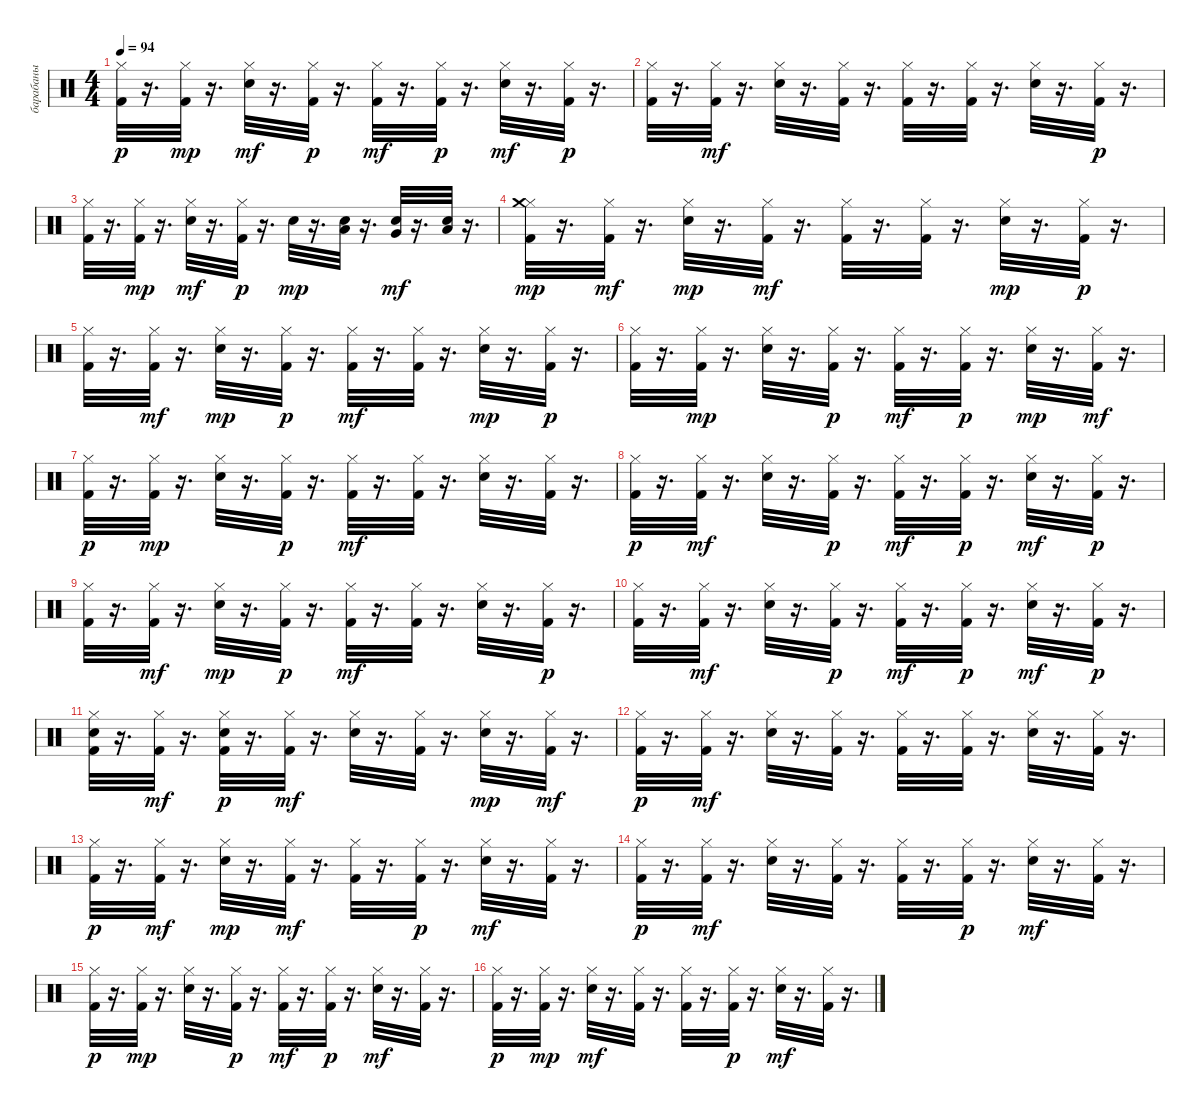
\track ("барабаны" "барабаны") {instrument percussion}
\staff {score}
\articulation defaults
\ts (4 4)
\tempo 94
\clef neutral
\ks c
("Hi-Hat (closed)" "Kick (hit) 2").32{dy p} r.16{d} ("Hi-Hat (closed)" "Kick (hit) 2").32{dy mp} r.16{d} ("Hi-Hat (closed)" "Metronome (bell)").32{dy mf} r.16{d} ("Hi-Hat (closed)" "Kick (hit) 2").32{dy p} r.16{d} ("Kick (hit) 2" "Hi-Hat (closed)").32{dy mf} r.16{d} ("Hi-Hat (closed)" "Kick (hit) 2").32{dy p} r.16{d} ("Hi-Hat (closed)" "Metronome (bell)").32{dy mf} r.16{d} ("Hi-Hat (closed)" "Kick (hit) 2").32{dy p} r.16{d} |
("Kick (hit) 2" "Hi-Hat (closed)").32 r.16{d} ("Kick (hit) 2" "Hi-Hat (closed)").32{dy mf} r.16{d} ("Hi-Hat (closed)" "Metronome (bell)").32 r.16{d} ("Kick (hit) 2" "Hi-Hat (closed)").32 r.16{d} ("Hi-Hat (closed)" "Kick (hit) 2").32 r.16{d} ("Kick (hit) 2" "Hi-Hat (closed)").32 r.16{d} ("Hi-Hat (closed)" "Metronome (bell)").32 r.16{d} ("Hi-Hat (closed)" "Kick (hit) 2").32{dy p} r.16{d} |
("Kick (hit) 2" "Hi-Hat (closed)").32 r.16{d} ("Hi-Hat (closed)" "Kick (hit) 2").32{dy mp} r.16{d} ("Metronome (bell)" "Hi-Hat (closed)").32{dy mf} r.16{d} ("Hi-Hat (closed)" "Kick (hit) 2").32{dy p} r.16{d} "Snare (hit) 2".32{dy mp} r.16{d} ("Snare (hit) 2" "Low Tom (hit)").32 r.16{d} ("Very Low Tom (hit)" "Snare (hit) 2").32{dy mf} r.16{d} ("Low Floor Tom (hit)" "Snare (hit) 2").32 r.16{d} |
("Hi-Hat (closed)" "Kick (hit) 2" "Crash medium (hit)").32{dy mp} r.16{d} ("Kick (hit) 2" "Hi-Hat (closed)").32{dy mf} r.16{d} ("Metronome (bell)" "Hi-Hat (closed)").32{dy mp} r.16{d} ("Kick (hit) 2" "Hi-Hat (closed)").32{dy mf} r.16{d} ("Hi-Hat (closed)" "Kick (hit) 2").32 r.16{d} ("Kick (hit) 2" "Hi-Hat (closed)").32 r.16{d} ("Metronome (bell)" "Hi-Hat (closed)").32{dy mp} r.16{d} ("Hi-Hat (closed)" "Kick (hit) 2").32{dy p} r.16{d} |
("Hi-Hat (closed)" "Kick (hit) 2").32 r.16{d} ("Kick (hit) 2" "Hi-Hat (closed)").32{dy mf} r.16{d} ("Metronome (bell)" "Hi-Hat (closed)").32{dy mp} r.16{d} ("Hi-Hat (closed)" "Kick (hit) 2").32{dy p} r.16{d} ("Kick (hit) 2" "Hi-Hat (closed)").32{dy mf} r.16{d} ("Kick (hit) 2" "Hi-Hat (closed)").32 r.16{d} ("Metronome (bell)" "Hi-Hat (closed)").32{dy mp} r.16{d} ("Hi-Hat (closed)" "Kick (hit) 2").32{dy p} r.16{d} |
("Kick (hit) 2" "Hi-Hat (closed)").32 r.16{d} ("Hi-Hat (closed)" "Kick (hit) 2").32{dy mp} r.16{d} ("Metronome (bell)" "Hi-Hat (closed)").32 r.16{d} ("Hi-Hat (closed)" "Kick (hit) 2").32{dy p} r.16{d} ("Hi-Hat (closed)" "Kick (hit) 2").32{dy mf} r.16{d} ("Hi-Hat (closed)" "Kick (hit) 2").32{dy p} r.16{d} ("Metronome (bell)" "Hi-Hat (closed)").32{dy mp} r.16{d} ("Kick (hit) 2" "Hi-Hat (closed)").32{dy mf} r.16{d} |
("Hi-Hat (closed)" "Kick (hit) 2").32{dy p} r.16{d} ("Hi-Hat (closed)" "Kick (hit) 2").32{dy mp} r.16{d} ("Metronome (bell)" "Hi-Hat (closed)").32 r.16{d} ("Hi-Hat (closed)" "Kick (hit) 2").32{dy p} r.16{d} ("Kick (hit) 2" "Hi-Hat (closed)").32{dy mf} r.16{d} ("Kick (hit) 2" "Hi-Hat (closed)").32 r.16{d} ("Metronome (bell)" "Hi-Hat (closed)").32 r.16{d} ("Kick (hit) 2" "Hi-Hat (closed)").32 r.16{d} |
("Kick (hit) 2" "Hi-Hat (closed)").32{dy p} r.16{d} ("Kick (hit) 2" "Hi-Hat (closed)").32{dy mf} r.16{d} ("Metronome (bell)" "Hi-Hat (closed)").32 r.16{d} ("Hi-Hat (closed)" "Kick (hit) 2").32{dy p} r.16{d} ("Hi-Hat (closed)" "Kick (hit) 2").32{dy mf} r.16{d} ("Hi-Hat (closed)" "Kick (hit) 2").32{dy p} r.16{d} ("Metronome (bell)" "Hi-Hat (closed)").32{dy mf} r.16{d} ("Hi-Hat (closed)" "Kick (hit) 2").32{dy p} r.16{d} |
("Hi-Hat (closed)" "Kick (hit) 2").32 r.16{d} ("Kick (hit) 2" "Hi-Hat (closed)").32{dy mf} r.16{d} ("Metronome (bell)" "Hi-Hat (closed)").32{dy mp} r.16{d} ("Hi-Hat (closed)" "Kick (hit) 2").32{dy p} r.16{d} ("Hi-Hat (closed)" "Kick (hit) 2").32{dy mf} r.16{d} ("Kick (hit) 2" "Hi-Hat (closed)").32 r.16{d} ("Metronome (bell)" "Hi-Hat (closed)").32 r.16{d} ("Hi-Hat (closed)" "Kick (hit) 2").32{dy p} r.16{d} |
("Hi-Hat (closed)" "Kick (hit) 2").32 r.16{d} ("Kick (hit) 2" "Hi-Hat (closed)").32{dy mf} r.16{d} ("Hi-Hat (closed)" "Metronome (bell)").32 r.16{d} ("Hi-Hat (closed)" "Kick (hit) 2").32{dy p} r.16{d} ("Kick (hit) 2" "Hi-Hat (closed)").32{dy mf} r.16{d} ("Hi-Hat (closed)" "Kick (hit) 2").32{dy p} r.16{d} ("Hi-Hat (closed)" "Metronome (bell)").32{dy mf} r.16{d} ("Hi-Hat (closed)" "Kick (hit) 2").32{dy p} r.16{d} |
("Electric Snare (hit)" "Kick (hit) 2" "Hi-Hat (closed)").32 r.16{d} ("Kick (hit) 2" "Hi-Hat (closed)").32{dy mf} r.16{d} ("Electric Snare (hit)" "Kick (hit) 2" "Hi-Hat (closed)").32{dy p} r.16{d} ("Kick (hit) 2" "Hi-Hat (closed)").32{dy mf} r.16{d} ("Metronome (bell)" "Hi-Hat (closed)").32 r.16{d} ("Kick (hit) 2" "Hi-Hat (closed)").32 r.16{d} ("Metronome (bell)" "Hi-Hat (closed)").32{dy mp} r.16{d} ("Kick (hit) 2" "Hi-Hat (closed)").32{dy mf} r.16{d} |
("Kick (hit) 2" "Hi-Hat (closed)").32{dy p} r.16{d} ("Kick (hit) 2" "Hi-Hat (closed)").32{dy mf} r.16{d} ("Metronome (bell)" "Hi-Hat (closed)").32 r.16{d} ("Kick (hit) 2" "Hi-Hat (closed)").32 r.16{d} ("Hi-Hat (closed)" "Kick (hit) 2").32 r.16{d} ("Kick (hit) 2" "Hi-Hat (closed)").32 r.16{d} ("Metronome (bell)" "Hi-Hat (closed)").32 r.16{d} ("Kick (hit) 2" "Hi-Hat (closed)").32 r.16{d} |
("Kick (hit) 2" "Hi-Hat (closed)").32{dy p} r.16{d} ("Kick (hit) 2" "Hi-Hat (closed)").32{dy mf} r.16{d} ("Metronome (bell)" "Hi-Hat (closed)").32{dy mp} r.16{d} ("Kick (hit) 2" "Hi-Hat (closed)").32{dy mf} r.16{d} ("Hi-Hat (closed)" "Kick (hit) 2").32 r.16{d} ("Hi-Hat (closed)" "Kick (hit) 2").32{dy p} r.16{d} ("Hi-Hat (closed)" "Metronome (bell)").32{dy mf} r.16{d} ("Kick (hit) 2" "Hi-Hat (closed)").32 r.16{d} |
("Kick (hit) 2" "Hi-Hat (closed)").32{dy p} r.16{d} ("Kick (hit) 2" "Hi-Hat (closed)").32{dy mf} r.16{d} ("Metronome (bell)" "Hi-Hat (closed)").32 r.16{d} ("Kick (hit) 2" "Hi-Hat (closed)").32 r.16{d} ("Kick (hit) 2" "Hi-Hat (closed)").32 r.16{d} ("Hi-Hat (closed)" "Kick (hit) 2").32{dy p} r.16{d} ("Metronome (bell)" "Hi-Hat (closed)").32{dy mf} r.16{d} ("Kick (hit) 2" "Hi-Hat (closed)").32 r.16{d} |
("Kick (hit) 2" "Hi-Hat (closed)").32{dy p} r.16{d} ("Hi-Hat (closed)" "Kick (hit) 2").32{dy mp} r.16{d} ("Hi-Hat (closed)" "Metronome (bell)").32 r.16{d} ("Hi-Hat (closed)" "Kick (hit) 2").32{dy p} r.16{d} ("Kick (hit) 2" "Hi-Hat (closed)").32{dy mf} r.16{d} ("Hi-Hat (closed)" "Kick (hit) 2").32{dy p} r.16{d} ("Hi-Hat (closed)" "Metronome (bell)").32{dy mf} r.16{d} ("Kick (hit) 2" "Hi-Hat (closed)").32 r.16{d} |
("Kick (hit) 2" "Hi-Hat (closed)").32{dy p} r.16{d} ("Hi-Hat (closed)" "Kick (hit) 2").32{dy mp} r.16{d} ("Metronome (bell)" "Hi-Hat (closed)").32{dy mf} r.16{d} ("Kick (hit) 2" "Hi-Hat (closed)").32 r.16{d} ("Kick (hit) 2" "Hi-Hat (closed)").32 r.16{d} ("Hi-Hat (closed)" "Kick (hit) 2").32{dy p} r.16{d} ("Hi-Hat (closed)" "Metronome (bell)").32{dy mf} r.16{d} ("Kick (hit) 2" "Hi-Hat (closed)").32 r.16{d}
